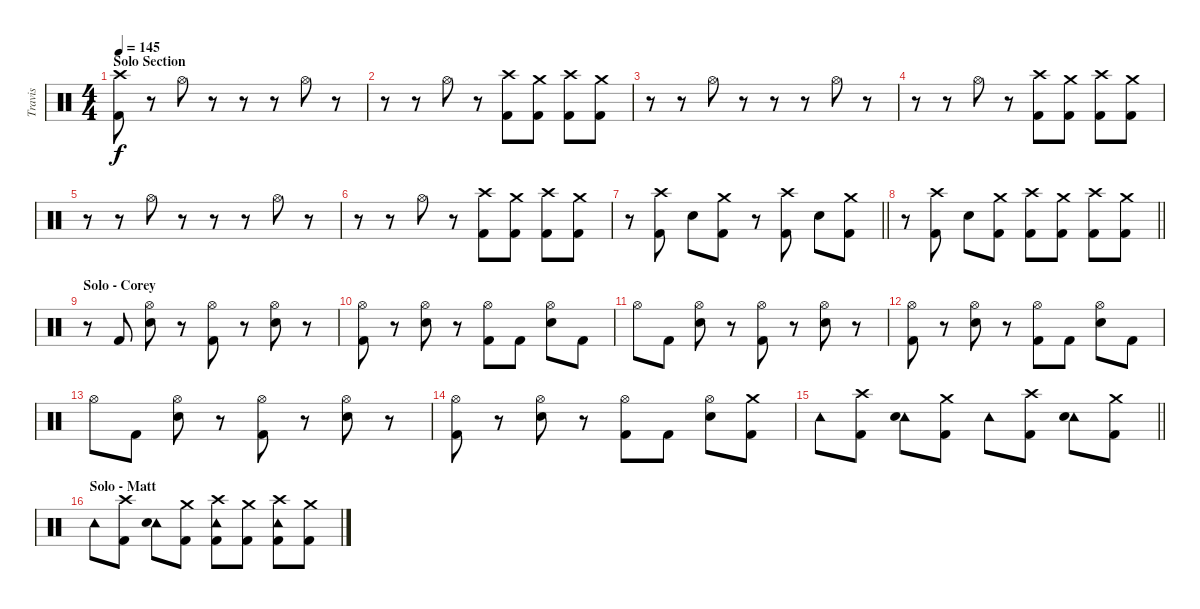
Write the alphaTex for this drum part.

\track ("Travis" "Travis") {instrument percussion}
\staff {score}
\articulation defaults
\ts (4 4)
\section ("" "Solo Section")
\tempo 145
\clef neutral
\ks c
("Crash high (hit)" "Kick (hit) 2").8{dy f} r.8 "Hi-Hat (open)".8 r.8 r.8 r.8 "Hi-Hat (open)".8 r.8 |
r.8 r.8 "Hi-Hat (open)".8 r.8 ("Crash high (hit)" "Kick (hit) 2").8 ("Crash medium (hit)" "Kick (hit) 2").8 ("Crash high (hit)" "Kick (hit) 2").8 ("Crash medium (hit)" "Kick (hit) 2").8 |
r.8 r.8 "Hi-Hat (open)".8 r.8 r.8 r.8 "Hi-Hat (open)".8 r.8 |
r.8 r.8 "Hi-Hat (open)".8 r.8 ("Crash high (hit)" "Kick (hit) 2").8 ("Crash medium (hit)" "Kick (hit) 2").8 ("Crash high (hit)" "Kick (hit) 2").8 ("Crash medium (hit)" "Kick (hit) 2").8 |
r.8 r.8 "Hi-Hat (open)".8 r.8 r.8 r.8 "Hi-Hat (open)".8 r.8 |
r.8 r.8 "Hi-Hat (open)".8 r.8 ("Crash high (hit)" "Kick (hit) 2").8 ("Crash medium (hit)" "Kick (hit) 2").8 ("Crash high (hit)" "Kick (hit) 2").8 ("Crash medium (hit)" "Kick (hit) 2").8 |
\barLineRight lightlight
r.8 ("Crash high (hit)" "Kick (hit) 2").8 "Electric Snare (hit)".8 ("Crash medium (hit)" "Kick (hit) 2").8 r.8 ("Crash high (hit)" "Kick (hit) 2").8 "Electric Snare (hit)".8 ("Crash medium (hit)" "Kick (hit) 2").8 |
\barLineRight lightlight
r.8 ("Crash high (hit)" "Kick (hit) 2").8 "Electric Snare (hit)".8 ("Crash medium (hit)" "Kick (hit) 2").8 ("Crash high (hit)" "Kick (hit) 2").8 ("Crash medium (hit)" "Kick (hit) 2").8 ("Crash high (hit)" "Kick (hit) 2").8 ("Crash medium (hit)" "Kick (hit) 2").8 |
\section ("" "Solo - Corey")
r.8 "Kick (hit) 2".8 ("Hi-Hat (open)" "Electric Snare (hit)").8 r.8 ("Hi-Hat (open)" "Kick (hit) 2").8 r.8 ("Hi-Hat (open)" "Electric Snare (hit)").8 r.8 |
("Hi-Hat (open)" "Kick (hit) 2").8 r.8 ("Hi-Hat (open)" "Electric Snare (hit)").8 r.8 ("Hi-Hat (open)" "Kick (hit) 2").8 "Kick (hit) 2".8 ("Hi-Hat (open)" "Electric Snare (hit)").8 "Kick (hit) 2".8 |
"Hi-Hat (open)".8 "Kick (hit) 2".8 ("Hi-Hat (open)" "Electric Snare (hit)").8 r.8 ("Hi-Hat (open)" "Kick (hit) 2").8 r.8 ("Hi-Hat (open)" "Electric Snare (hit)").8 r.8 |
("Hi-Hat (open)" "Kick (hit) 2").8 r.8 ("Hi-Hat (open)" "Electric Snare (hit)").8 r.8 ("Hi-Hat (open)" "Kick (hit) 2").8 "Kick (hit) 2".8 ("Hi-Hat (open)" "Electric Snare (hit)").8 "Kick (hit) 2".8 |
"Hi-Hat (open)".8 "Kick (hit) 2".8 ("Hi-Hat (open)" "Electric Snare (hit)").8 r.8 ("Hi-Hat (open)" "Kick (hit) 2").8 r.8 ("Hi-Hat (open)" "Electric Snare (hit)").8 r.8 |
("Hi-Hat (open)" "Kick (hit) 2").8 r.8 ("Hi-Hat (open)" "Electric Snare (hit)").8 r.8 ("Hi-Hat (open)" "Kick (hit) 2").8 "Kick (hit) 2".8 ("Hi-Hat (open)" "Electric Snare (hit)").8 ("Crash medium (hit)" "Kick (hit) 2").8 |
\barLineRight lightlight "Tambourine (hit)".8
("Crash high (hit)" "Kick (hit) 2").8 ("Tambourine (hit)" "Electric Snare (hit)").8 ("Crash medium (hit)" "Kick (hit) 2").8 "Tambourine (hit)".8 ("Crash high (hit)" "Kick (hit) 2").8 ("Tambourine (hit)" "Electric Snare (hit)").8 ("Crash medium (hit)" "Kick (hit) 2").8 |
\section ("" "Solo - Matt")
"Tambourine (hit)".8 ("Crash high (hit)" "Kick (hit) 2").8 ("Tambourine (hit)" "Electric Snare (hit)").8 ("Crash medium (hit)" "Kick (hit) 2").8 ("Crash high (hit)" "Tambourine (hit)" "Kick (hit) 2").8 ("Crash medium (hit)" "Kick (hit) 2").8 ("Crash high (hit)" "Tambourine (hit)" "Kick (hit) 2").8 ("Crash medium (hit)" "Kick (hit) 2").8
